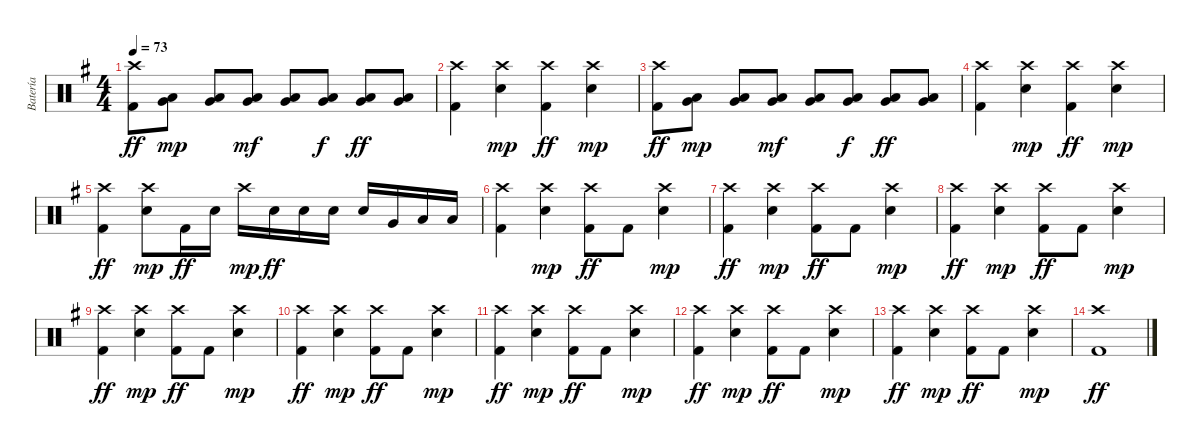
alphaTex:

\track ("Batería" "Batería") {instrument percussion}
\staff {score}
\articulation defaults
\ts (4 4)
\tempo 73
\clef neutral
\ks eminor
("Crash high (hit)" "Kick (hit) 2").8{dy ff} ("Very Low Tom (hit)" "Low Floor Tom (hit)").8{dy mp} ("Very Low Tom (hit)" "Low Floor Tom (hit)").8 ("Very Low Tom (hit)" "Low Floor Tom (hit)").8{dy mf} ("Very Low Tom (hit)" "Low Floor Tom (hit)").8 ("Very Low Tom (hit)" "Low Floor Tom (hit)").8{dy f} ("Very Low Tom (hit)" "Low Floor Tom (hit)").8{dy ff} ("Very Low Tom (hit)" "Low Floor Tom (hit)").8 |
("Crash high (hit)" "Kick (hit) 2").4 ("Electric Snare (hit)" "Crash high (hit)").4{dy mp} ("Crash high (hit)" "Kick (hit) 2").4{dy ff} ("Electric Snare (hit)" "Crash high (hit)").4{dy mp} |
("Crash high (hit)" "Kick (hit) 2").8{dy ff} ("Very Low Tom (hit)" "Low Floor Tom (hit)").8{dy mp} ("Very Low Tom (hit)" "Low Floor Tom (hit)").8 ("Very Low Tom (hit)" "Low Floor Tom (hit)").8{dy mf} ("Very Low Tom (hit)" "Low Floor Tom (hit)").8 ("Very Low Tom (hit)" "Low Floor Tom (hit)").8{dy f} ("Very Low Tom (hit)" "Low Floor Tom (hit)").8{dy ff} ("Very Low Tom (hit)" "Low Floor Tom (hit)").8 |
("Crash high (hit)" "Kick (hit) 2").4 ("Electric Snare (hit)" "Crash high (hit)").4{dy mp} ("Crash high (hit)" "Kick (hit) 2").4{dy ff} ("Electric Snare (hit)" "Crash high (hit)").4{dy mp} |
("Crash high (hit)" "Kick (hit) 2").4{dy ff} ("Electric Snare (hit)" "Crash high (hit)").8{dy mp} "Kick (hit) 2".16{dy ff} "Electric Snare (hit)".16 "Crash high (hit)".16{dy mp} "Electric Snare (hit)".16{dy ff} "Electric Snare (hit)".16 "Electric Snare (hit)".16 "Electric Snare (hit)".16 "Very Low Tom (hit)".16 "Low Floor Tom (hit)".16 "Low Floor Tom (hit)".16 |
("Crash high (hit)" "Kick (hit) 2").4 ("Electric Snare (hit)" "Crash high (hit)").4{dy mp} ("Crash high (hit)" "Kick (hit) 2").8{dy ff} "Kick (hit) 2".8 ("Electric Snare (hit)" "Crash high (hit)").4{dy mp} |
("Crash high (hit)" "Kick (hit) 2").4{dy ff} ("Electric Snare (hit)" "Crash high (hit)").4{dy mp} ("Crash high (hit)" "Kick (hit) 2").8{dy ff} "Kick (hit) 2".8 ("Electric Snare (hit)" "Crash high (hit)").4{dy mp} |
("Crash high (hit)" "Kick (hit) 2").4{dy ff} ("Electric Snare (hit)" "Crash high (hit)").4{dy mp} ("Crash high (hit)" "Kick (hit) 2").8{dy ff} "Kick (hit) 2".8 ("Electric Snare (hit)" "Crash high (hit)").4{dy mp} |
("Crash high (hit)" "Kick (hit) 2").4{dy ff} ("Electric Snare (hit)" "Crash high (hit)").4{dy mp} ("Crash high (hit)" "Kick (hit) 2").8{dy ff} "Kick (hit) 2".8 ("Electric Snare (hit)" "Crash high (hit)").4{dy mp} |
("Crash high (hit)" "Kick (hit) 2").4{dy ff} ("Electric Snare (hit)" "Crash high (hit)").4{dy mp} ("Crash high (hit)" "Kick (hit) 2").8{dy ff} "Kick (hit) 2".8 ("Electric Snare (hit)" "Crash high (hit)").4{dy mp} |
("Crash high (hit)" "Kick (hit) 2").4{dy ff} ("Electric Snare (hit)" "Crash high (hit)").4{dy mp} ("Crash high (hit)" "Kick (hit) 2").8{dy ff} "Kick (hit) 2".8 ("Electric Snare (hit)" "Crash high (hit)").4{dy mp} |
("Crash high (hit)" "Kick (hit) 2").4{dy ff} ("Electric Snare (hit)" "Crash high (hit)").4{dy mp} ("Crash high (hit)" "Kick (hit) 2").8{dy ff} "Kick (hit) 2".8 ("Electric Snare (hit)" "Crash high (hit)").4{dy mp} |
("Crash high (hit)" "Kick (hit) 2").4{dy ff} ("Electric Snare (hit)" "Crash high (hit)").4{dy mp} ("Crash high (hit)" "Kick (hit) 2").8{dy ff} "Kick (hit) 2".8 ("Electric Snare (hit)" "Crash high (hit)").4{dy mp} |
("Crash high (hit)" "Kick (hit) 2").1{dy ff}
